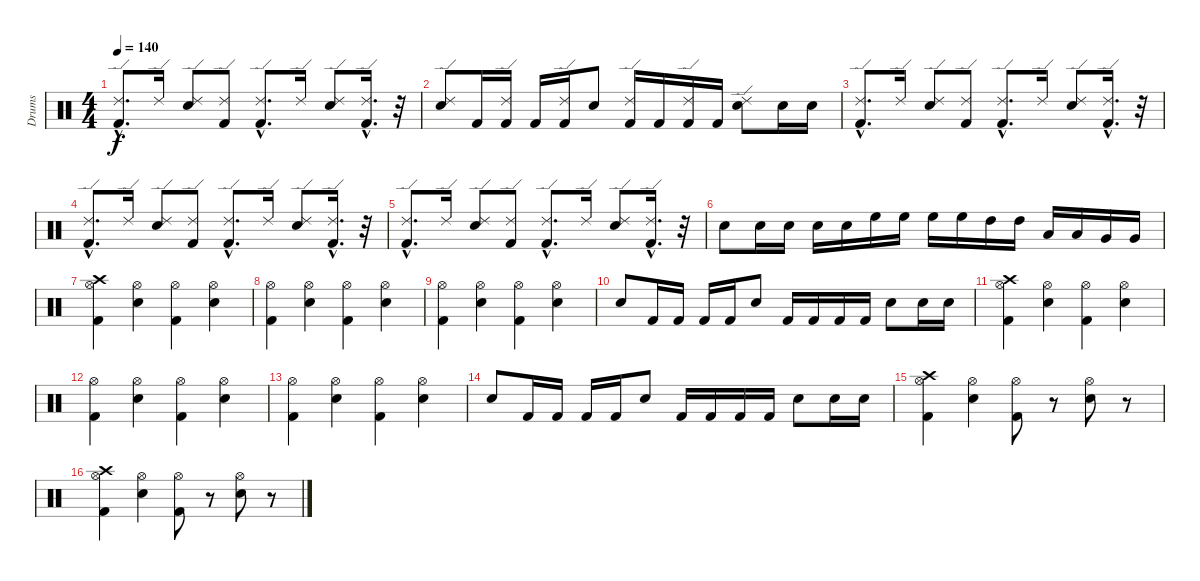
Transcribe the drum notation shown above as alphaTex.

\track ("Drums" "Drums") {instrument percussion}
\staff {score}
\articulation defaults
\ts (4 4)
\tempo 140
\clef neutral
\ks c
("Ride (edge) 2"{hac} "Kick (hit) 2"{hac}).8{d dy f} "Ride (edge) 2".16 ("Ride (edge) 2" "Snare (hit) 2").8 ("Ride (edge) 2" "Kick (hit) 2").8 ("Ride (edge) 2"{hac} "Kick (hit) 2"{hac}).8{d} "Ride (edge) 2".16 ("Ride (edge) 2" "Snare (hit) 2").8 ("Ride (edge) 2"{hac} "Kick (hit) 2"{hac}).16{d} r.32 |
("Ride (edge) 2" "Snare (hit) 2").8 "Kick (hit) 2".16 ("Ride (edge) 2" "Kick (hit) 2").16 "Kick (hit) 2".16 ("Ride (edge) 2" "Kick (hit) 2").16 "Snare (hit) 2".8 ("Ride (edge) 2" "Kick (hit) 2").16 "Kick (hit) 2".16 ("Ride (edge) 2" "Kick (hit) 2").16 "Kick (hit) 2".16 ("Ride (edge) 2" "Snare (hit) 2").8 "Snare (hit) 2".16 "Snare (hit) 2".16 |
("Ride (edge) 2"{hac} "Kick (hit) 2"{hac}).8{d} "Ride (edge) 2".16 ("Ride (edge) 2" "Snare (hit) 2").8 ("Ride (edge) 2" "Kick (hit) 2").8 ("Ride (edge) 2"{hac} "Kick (hit) 2"{hac}).8{d} "Ride (edge) 2".16 ("Ride (edge) 2" "Snare (hit) 2").8 ("Ride (edge) 2"{hac} "Kick (hit) 2"{hac}).16{d} r.32 |
("Ride (edge) 2"{hac} "Kick (hit) 2"{hac}).8{d} "Ride (edge) 2".16 ("Ride (edge) 2" "Snare (hit) 2").8 ("Ride (edge) 2" "Kick (hit) 2").8 ("Ride (edge) 2"{hac} "Kick (hit) 2"{hac}).8{d} "Ride (edge) 2".16 ("Ride (edge) 2" "Snare (hit) 2").8 ("Ride (edge) 2"{hac} "Kick (hit) 2"{hac}).16{d} r.32 |
("Ride (edge) 2"{hac} "Kick (hit) 2"{hac}).8{d} "Ride (edge) 2".16 ("Ride (edge) 2" "Snare (hit) 2").8 ("Ride (edge) 2" "Kick (hit) 2").8 ("Ride (edge) 2"{hac} "Kick (hit) 2"{hac}).8{d} "Ride (edge) 2".16 ("Ride (edge) 2" "Snare (hit) 2").8 ("Ride (edge) 2"{hac} "Kick (hit) 2"{hac}).16{d} r.32 |
"Snare (hit) 2".8 "Snare (hit) 2".16 "Snare (hit) 2".16 "Snare (hit) 2".16 "Snare (hit) 2".16 "High Floor Tom (hit)".16 "High Floor Tom (hit)".16 "High Floor Tom (hit)".16 "High Floor Tom (hit)".16 "High Tom (hit)".16 "High Tom (hit)".16 "Low Tom (hit)".16 "Low Tom (hit)".16 "Very Low Tom (hit)".16 "Very Low Tom (hit)".16 |
("Crash high (hit)" "Hi-Hat (open)" "Kick (hit) 2").4 ("Hi-Hat (open)" "Snare (hit) 2").4 ("Hi-Hat (open)" "Kick (hit) 2").4 ("Hi-Hat (open)" "Snare (hit) 2").4 |
("Hi-Hat (open)" "Kick (hit) 2").4 ("Hi-Hat (open)" "Snare (hit) 2").4 ("Hi-Hat (open)" "Kick (hit) 2").4 ("Hi-Hat (open)" "Snare (hit) 2").4 |
("Hi-Hat (open)" "Kick (hit) 2").4 ("Hi-Hat (open)" "Snare (hit) 2").4 ("Hi-Hat (open)" "Kick (hit) 2").4 ("Hi-Hat (open)" "Snare (hit) 2").4 |
"Snare (hit) 2".8 "Kick (hit) 2".16 "Kick (hit) 2".16 "Kick (hit) 2".16 "Kick (hit) 2".16 "Snare (hit) 2".8 "Kick (hit) 2".16 "Kick (hit) 2".16 "Kick (hit) 2".16 "Kick (hit) 2".16 "Snare (hit) 2".8 "Snare (hit) 2".16 "Snare (hit) 2".16 |
("Crash high (hit)" "Hi-Hat (open)" "Kick (hit) 2").4 ("Hi-Hat (open)" "Snare (hit) 2").4 ("Hi-Hat (open)" "Kick (hit) 2").4 ("Hi-Hat (open)" "Snare (hit) 2").4 |
("Hi-Hat (open)" "Kick (hit) 2").4 ("Hi-Hat (open)" "Snare (hit) 2").4 ("Hi-Hat (open)" "Kick (hit) 2").4 ("Hi-Hat (open)" "Snare (hit) 2").4 |
("Hi-Hat (open)" "Kick (hit) 2").4 ("Hi-Hat (open)" "Snare (hit) 2").4 ("Hi-Hat (open)" "Kick (hit) 2").4 ("Hi-Hat (open)" "Snare (hit) 2").4 |
"Snare (hit) 2".8 "Kick (hit) 2".16 "Kick (hit) 2".16 "Kick (hit) 2".16 "Kick (hit) 2".16 "Snare (hit) 2".8 "Kick (hit) 2".16 "Kick (hit) 2".16 "Kick (hit) 2".16 "Kick (hit) 2".16 "Snare (hit) 2".8 "Snare (hit) 2".16 "Snare (hit) 2".16 |
("Crash high (hit)" "Hi-Hat (open)" "Kick (hit) 2").4 ("Hi-Hat (open)" "Snare (hit) 2").4 ("Hi-Hat (open)" "Kick (hit) 2").8 r.8 ("Hi-Hat (open)" "Snare (hit) 2").8 r.8 |
("Crash high (hit)" "Hi-Hat (open)" "Kick (hit) 2").4 ("Hi-Hat (open)" "Snare (hit) 2").4 ("Hi-Hat (open)" "Kick (hit) 2").8 r.8 ("Hi-Hat (open)" "Snare (hit) 2").8 r.8
